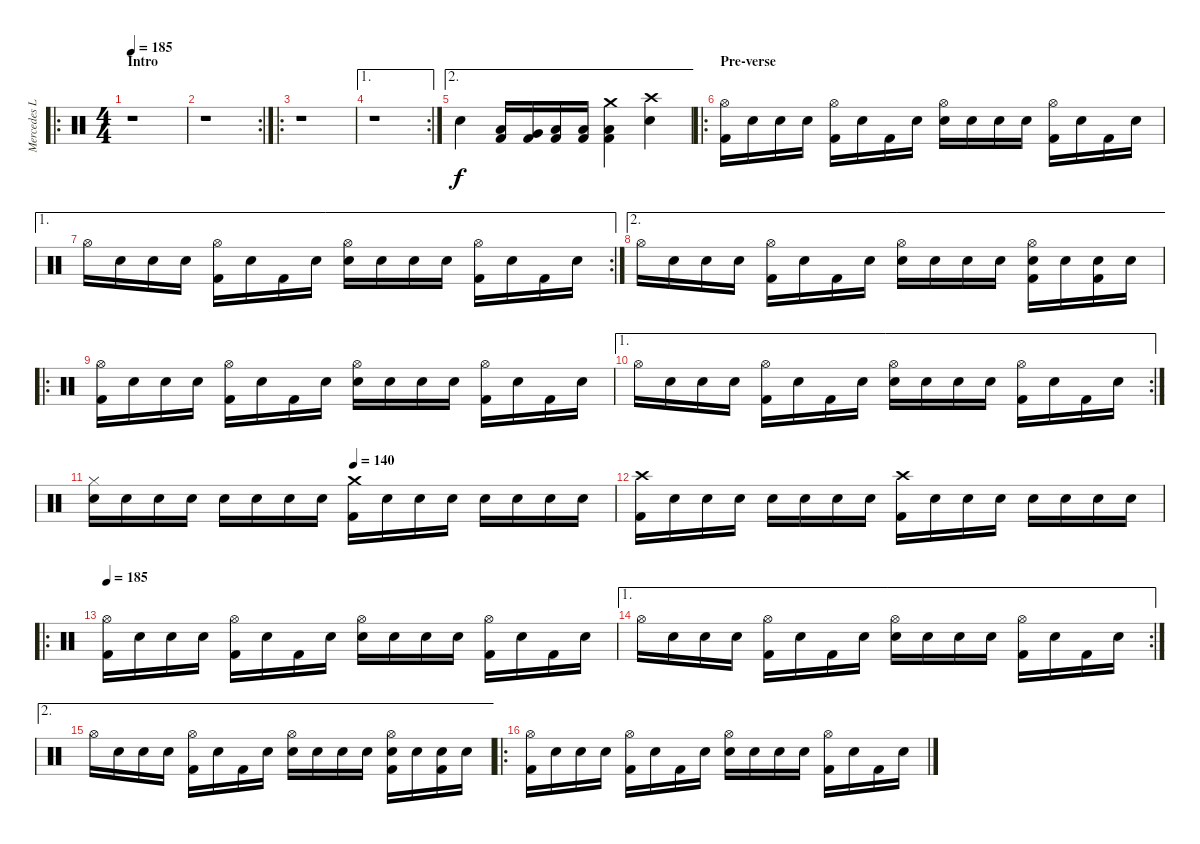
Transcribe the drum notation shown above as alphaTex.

\track ("Mercedes Lander - Drums" "Mercedes L") {instrument percussion}
\staff {score}
\articulation defaults
\ro
\ts (4 4)
\section ("" "Intro")
\tempo 185
\clef neutral
\ks c
r.1{dy f volume 16 balance 8} |
\rc 2
r.1 |
\ro
r.1 |
\ae 1
\rc 2
r.1 |
\ae 2 "Electric Snare (hit)".4
("Low Floor Tom (hit)" "Kick (hit) 2").16 ("Very Low Tom (hit)" "Kick (hit) 2").16 ("Low Tom (hit)" "Kick (hit) 2").16 ("Low Tom (hit)" "Kick (hit) 2").16 ("Crash medium (hit)" "Low Floor Tom (hit)" "Kick (hit) 2").4 ("Crash high (hit)" "Electric Snare (hit)").4 |
\ro
\section ("" "Pre-verse")
("Hi-Hat (open)" "Kick (hit) 2").16{volume 16 balance 8} "Snare (hit)".16 "Snare (hit)".16 "Snare (hit)".16 ("Hi-Hat (open)" "Kick (hit) 2").16 "Snare (hit)".16 "Kick (hit) 2".16 "Snare (hit)".16 ("Hi-Hat (open)" "Snare (hit) 2").16 "Snare (hit)".16 "Snare (hit)".16 "Snare (hit)".16 ("Hi-Hat (open)" "Kick (hit) 2").16 "Snare (hit)".16 "Kick (hit) 2".16 "Snare (hit)".16 |
\ae 1
\rc 2 "Hi-Hat (open)".16 "Snare (hit)".16 "Snare (hit)".16 "Snare (hit)".16
("Hi-Hat (open)" "Kick (hit) 2").16 "Snare (hit)".16 "Kick (hit) 2".16 "Snare (hit)".16 ("Hi-Hat (open)" "Electric Snare (hit)").16 "Snare (hit)".16 "Snare (hit)".16 "Snare (hit)".16 ("Hi-Hat (open)" "Kick (hit) 2").16 "Snare (hit)".16 "Kick (hit) 2".16 "Snare (hit)".16 |
\ae 2 "Hi-Hat (open)".16 "Snare (hit)".16 "Snare (hit)".16 "Snare (hit)".16
("Hi-Hat (open)" "Kick (hit) 2").16 "Snare (hit)".16 "Kick (hit) 2".16 "Snare (hit)".16 ("Hi-Hat (open)" "Electric Snare (hit)").16 "Electric Snare (hit)".16 "Electric Snare (hit)".16 "Electric Snare (hit)".16 ("Hi-Hat (open)" "Electric Snare (hit)" "Kick (hit) 2").16 "Snare (hit)".16 ("Electric Snare (hit)" "Kick (hit) 2").16 "Snare (hit)".16 |
\ro
("Hi-Hat (open)" "Kick (hit) 2").16 "Snare (hit)".16 "Snare (hit)".16 "Snare (hit)".16 ("Hi-Hat (open)" "Kick (hit) 2").16 "Snare (hit)".16 "Kick (hit) 2".16 "Snare (hit)".16 ("Hi-Hat (open)" "Snare (hit) 2").16 "Snare (hit)".16 "Snare (hit)".16 "Snare (hit)".16 ("Hi-Hat (open)" "Kick (hit) 2").16 "Snare (hit)".16 "Kick (hit) 2".16 "Snare (hit)".16 |
\ae 1
\rc 2 "Hi-Hat (open)".16 "Snare (hit)".16 "Snare (hit)".16 "Snare (hit)".16
("Hi-Hat (open)" "Kick (hit) 2").16 "Snare (hit)".16 "Kick (hit) 2".16 "Snare (hit)".16 ("Hi-Hat (open)" "Electric Snare (hit)").16 "Snare (hit)".16 "Snare (hit)".16 "Snare (hit)".16 ("Hi-Hat (open)" "Kick (hit) 2").16 "Snare (hit)".16 "Kick (hit) 2".16 "Snare (hit)".16 |
\tempo (140 0.5)
("Hi-Hat (closed)" "Electric Snare (hit)").16 "Electric Snare (hit)".16 "Electric Snare (hit)".16 "Electric Snare (hit)".16 "Snare (hit) 2".16 "Snare (hit) 2".16 "Snare (hit) 2".16 "Snare (hit) 2".16 ("Crash medium (hit)" "Kick (hit) 2").16 "Snare (hit)".16 "Snare (hit)".16 "Snare (hit)".16 "Snare (hit)".16 "Snare (hit)".16 "Snare (hit)".16 "Snare (hit)".16 |
("Crash high (hit)" "Kick (hit) 2").16 "Snare (hit)".16 "Snare (hit)".16 "Snare (hit)".16 "Snare (hit)".16 "Snare (hit)".16 "Snare (hit)".16 "Snare (hit)".16 ("Crash high (hit)" "Kick (hit) 2").16 "Snare (hit)".16 "Snare (hit)".16 "Snare (hit)".16 "Snare (hit)".16 "Snare (hit)".16 "Snare (hit)".16 "Snare (hit)".16 |
\ro
\tempo 185
("Hi-Hat (open)" "Kick (hit) 2").16 "Snare (hit)".16 "Snare (hit)".16 "Snare (hit)".16 ("Hi-Hat (open)" "Kick (hit) 2").16 "Snare (hit)".16 "Kick (hit) 2".16 "Snare (hit)".16 ("Hi-Hat (open)" "Snare (hit) 2").16 "Snare (hit)".16 "Snare (hit)".16 "Snare (hit)".16 ("Hi-Hat (open)" "Kick (hit) 2").16 "Snare (hit)".16 "Kick (hit) 2".16 "Snare (hit)".16 |
\ae 1
\rc 2 "Hi-Hat (open)".16 "Snare (hit)".16 "Snare (hit)".16 "Snare (hit)".16
("Hi-Hat (open)" "Kick (hit) 2").16 "Snare (hit)".16 "Kick (hit) 2".16 "Snare (hit)".16 ("Hi-Hat (open)" "Electric Snare (hit)").16 "Snare (hit)".16 "Snare (hit)".16 "Snare (hit)".16 ("Hi-Hat (open)" "Kick (hit) 2").16 "Snare (hit)".16 "Kick (hit) 2".16 "Snare (hit)".16 |
\ae 2 "Hi-Hat (open)".16 "Snare (hit)".16 "Snare (hit)".16 "Snare (hit)".16
("Hi-Hat (open)" "Kick (hit) 2").16 "Snare (hit)".16 "Kick (hit) 2".16 "Snare (hit)".16 ("Hi-Hat (open)" "Electric Snare (hit)").16 "Electric Snare (hit)".16 "Electric Snare (hit)".16 "Electric Snare (hit)".16 ("Hi-Hat (open)" "Electric Snare (hit)" "Kick (hit) 2").16 "Snare (hit)".16 ("Electric Snare (hit)" "Kick (hit) 2").16 "Snare (hit)".16 |
\ro
("Hi-Hat (open)" "Kick (hit) 2").16 "Snare (hit)".16 "Snare (hit)".16 "Snare (hit)".16 ("Hi-Hat (open)" "Kick (hit) 2").16 "Snare (hit)".16 "Kick (hit) 2".16 "Snare (hit)".16 ("Hi-Hat (open)" "Snare (hit) 2").16 "Snare (hit)".16 "Snare (hit)".16 "Snare (hit)".16 ("Hi-Hat (open)" "Kick (hit) 2").16 "Snare (hit)".16 "Kick (hit) 2".16 "Snare (hit)".16
